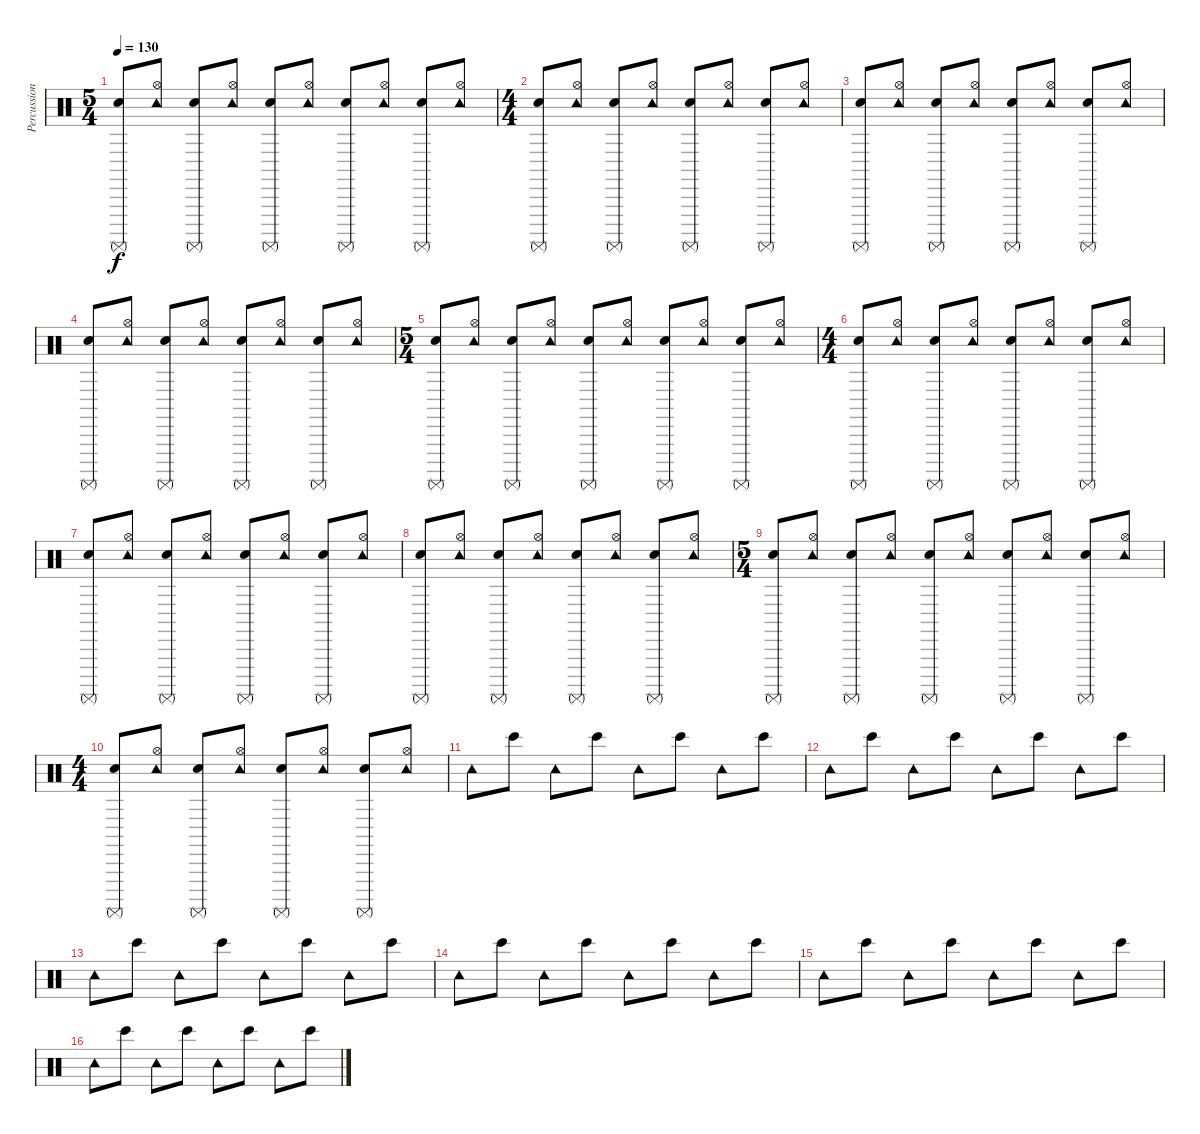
\track ("Percussions" "Percussion") {instrument percussion}
\staff {score}
\articulation defaults
\ts (5 4)
\tempo 130
\clef neutral
\ks c
("Surdo (mute)" "Hand Clap (hit)").8{dy f} ("Tambourine (hit)" "Hi-Hat (open)").8 ("Surdo (mute)" "Hand Clap (hit)").8 ("Tambourine (hit)" "Hi-Hat (open)").8 ("Surdo (mute)" "Hand Clap (hit)").8 ("Tambourine (hit)" "Hi-Hat (open)").8 ("Surdo (mute)" "Hand Clap (hit)").8 ("Tambourine (hit)" "Hi-Hat (open)").8 ("Surdo (mute)" "Hand Clap (hit)").8 ("Tambourine (hit)" "Hi-Hat (open)").8 |
\ts (4 4)
("Surdo (mute)" "Hand Clap (hit)").8 ("Tambourine (hit)" "Hi-Hat (open)").8 ("Surdo (mute)" "Hand Clap (hit)").8 ("Tambourine (hit)" "Hi-Hat (open)").8 ("Surdo (mute)" "Hand Clap (hit)").8 ("Tambourine (hit)" "Hi-Hat (open)").8 ("Surdo (mute)" "Hand Clap (hit)").8 ("Tambourine (hit)" "Hi-Hat (open)").8 |
("Surdo (mute)" "Hand Clap (hit)").8 ("Tambourine (hit)" "Hi-Hat (open)").8 ("Surdo (mute)" "Hand Clap (hit)").8 ("Tambourine (hit)" "Hi-Hat (open)").8 ("Surdo (mute)" "Hand Clap (hit)").8 ("Tambourine (hit)" "Hi-Hat (open)").8 ("Surdo (mute)" "Hand Clap (hit)").8 ("Tambourine (hit)" "Hi-Hat (open)").8 |
("Surdo (mute)" "Hand Clap (hit)").8 ("Tambourine (hit)" "Hi-Hat (open)").8 ("Surdo (mute)" "Hand Clap (hit)").8 ("Tambourine (hit)" "Hi-Hat (open)").8 ("Surdo (mute)" "Hand Clap (hit)").8 ("Tambourine (hit)" "Hi-Hat (open)").8 ("Surdo (mute)" "Hand Clap (hit)").8 ("Tambourine (hit)" "Hi-Hat (open)").8 |
\ts (5 4)
("Surdo (mute)" "Hand Clap (hit)").8 ("Tambourine (hit)" "Hi-Hat (open)").8 ("Surdo (mute)" "Hand Clap (hit)").8 ("Tambourine (hit)" "Hi-Hat (open)").8 ("Surdo (mute)" "Hand Clap (hit)").8 ("Tambourine (hit)" "Hi-Hat (open)").8 ("Surdo (mute)" "Hand Clap (hit)").8 ("Tambourine (hit)" "Hi-Hat (open)").8 ("Surdo (mute)" "Hand Clap (hit)").8 ("Tambourine (hit)" "Hi-Hat (open)").8 |
\ts (4 4)
("Surdo (mute)" "Hand Clap (hit)").8 ("Tambourine (hit)" "Hi-Hat (open)").8 ("Surdo (mute)" "Hand Clap (hit)").8 ("Tambourine (hit)" "Hi-Hat (open)").8 ("Surdo (mute)" "Hand Clap (hit)").8 ("Tambourine (hit)" "Hi-Hat (open)").8 ("Surdo (mute)" "Hand Clap (hit)").8 ("Tambourine (hit)" "Hi-Hat (open)").8 |
("Surdo (mute)" "Hand Clap (hit)").8 ("Tambourine (hit)" "Hi-Hat (open)").8 ("Surdo (mute)" "Hand Clap (hit)").8 ("Tambourine (hit)" "Hi-Hat (open)").8 ("Surdo (mute)" "Hand Clap (hit)").8 ("Tambourine (hit)" "Hi-Hat (open)").8 ("Surdo (mute)" "Hand Clap (hit)").8 ("Tambourine (hit)" "Hi-Hat (open)").8 |
("Surdo (mute)" "Hand Clap (hit)").8 ("Tambourine (hit)" "Hi-Hat (open)").8 ("Surdo (mute)" "Hand Clap (hit)").8 ("Tambourine (hit)" "Hi-Hat (open)").8 ("Surdo (mute)" "Hand Clap (hit)").8 ("Tambourine (hit)" "Hi-Hat (open)").8 ("Surdo (mute)" "Hand Clap (hit)").8 ("Tambourine (hit)" "Hi-Hat (open)").8 |
\ts (5 4)
("Surdo (mute)" "Hand Clap (hit)").8 ("Tambourine (hit)" "Hi-Hat (open)").8 ("Surdo (mute)" "Hand Clap (hit)").8 ("Tambourine (hit)" "Hi-Hat (open)").8 ("Surdo (mute)" "Hand Clap (hit)").8 ("Tambourine (hit)" "Hi-Hat (open)").8 ("Surdo (mute)" "Hand Clap (hit)").8 ("Tambourine (hit)" "Hi-Hat (open)").8 ("Surdo (mute)" "Hand Clap (hit)").8 ("Tambourine (hit)" "Hi-Hat (open)").8 |
\ts (4 4)
("Surdo (mute)" "Hand Clap (hit)").8 ("Tambourine (hit)" "Hi-Hat (open)").8 ("Surdo (mute)" "Hand Clap (hit)").8 ("Tambourine (hit)" "Hi-Hat (open)").8 ("Surdo (mute)" "Hand Clap (hit)").8 ("Tambourine (hit)" "Hi-Hat (open)").8 ("Surdo (mute)" "Hand Clap (hit)").8 ("Tambourine (hit)" "Hi-Hat (open)").8 |
"Tambourine (hit)".8 "Bongo High (hit)".8 "Tambourine (hit)".8 "Bongo High (hit)".8 "Tambourine (hit)".8 "Bongo High (hit)".8 "Tambourine (hit)".8 "Bongo High (hit)".8 |
"Tambourine (hit)".8 "Bongo High (hit)".8 "Tambourine (hit)".8 "Bongo High (hit)".8 "Tambourine (hit)".8 "Bongo High (hit)".8 "Tambourine (hit)".8 "Bongo High (hit)".8 |
"Tambourine (hit)".8 "Bongo High (hit)".8 "Tambourine (hit)".8 "Bongo High (hit)".8 "Tambourine (hit)".8 "Bongo High (hit)".8 "Tambourine (hit)".8 "Bongo High (hit)".8 |
"Tambourine (hit)".8 "Bongo High (hit)".8 "Tambourine (hit)".8 "Bongo High (hit)".8 "Tambourine (hit)".8 "Bongo High (hit)".8 "Tambourine (hit)".8 "Bongo High (hit)".8 |
"Tambourine (hit)".8 "Bongo High (hit)".8 "Tambourine (hit)".8 "Bongo High (hit)".8 "Tambourine (hit)".8 "Bongo High (hit)".8 "Tambourine (hit)".8 "Bongo High (hit)".8 |
"Tambourine (hit)".8 "Bongo High (hit)".8 "Tambourine (hit)".8 "Bongo High (hit)".8 "Tambourine (hit)".8 "Bongo High (hit)".8 "Tambourine (hit)".8 "Bongo High (hit)".8
